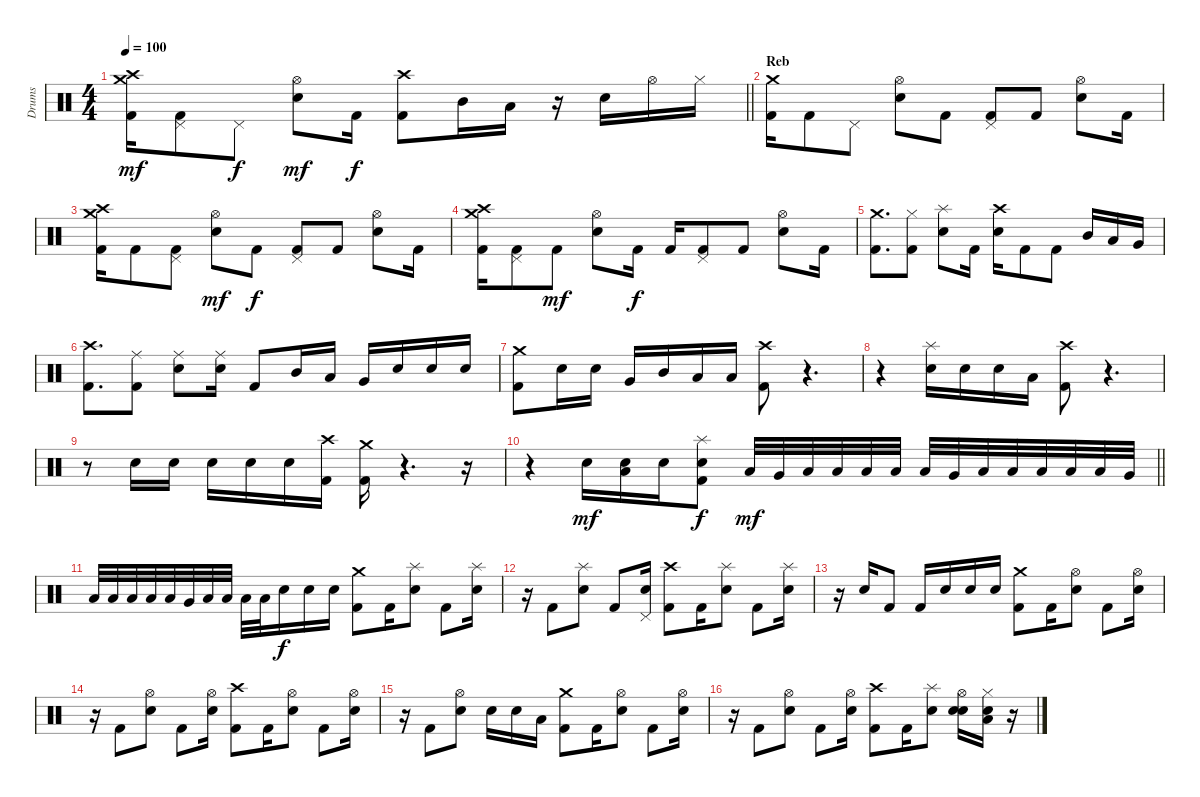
\track ("Drums" "Drums") {instrument percussion}
\staff {score}
\articulation defaults
\ts (4 4)
\tempo 100
\clef neutral
\barLineRight lightlight
\ks c
("Crash high (hit)" "Crash medium (hit)" "Kick (hit) 2").16{dy mf} ("Pedal Hi-Hat (hit)" "Kick (hit) 2").8 "Pedal Hi-Hat (hit)".8{dy f} ("Hi-Hat (open)" "Snare (hit) 2").8{dy mf} "Kick (hit) 2".16{dy f} ("Crash high (hit)" "Kick (hit) 2").8 "Mid Tom (hit)".16 "Low Tom (hit)".16 r.16 "Snare (hit) 2".16 "Hi-Hat (open)".16 "Hi-Hat (closed)".16 |
\section ("" "Reb")
("Crash medium (hit)" "Kick (hit) 2").16 "Kick (hit) 2".8 "Pedal Hi-Hat (hit)".8 ("Hi-Hat (open)" "Snare (hit) 2").8 "Kick (hit) 2".8 ("Pedal Hi-Hat (hit)" "Kick (hit) 2").8 "Kick (hit) 2".8 ("Hi-Hat (open)" "Snare (hit) 2").8 "Kick (hit) 2".16 |
("Crash high (hit)" "Crash medium (hit)" "Kick (hit) 2").16 "Kick (hit) 2".8 ("Pedal Hi-Hat (hit)" "Kick (hit) 2").8 ("Hi-Hat (open)" "Snare (hit) 2").8{dy mf} "Kick (hit) 2".8{dy f} ("Pedal Hi-Hat (hit)" "Kick (hit) 2").8 "Kick (hit) 2".8 ("Hi-Hat (open)" "Snare (hit) 2").8 "Kick (hit) 2".16 |
("Crash high (hit)" "Crash medium (hit)" "Kick (hit) 2").16 ("Pedal Hi-Hat (hit)" "Kick (hit) 2").8 "Kick (hit) 2".8{dy mf} ("Hi-Hat (open)" "Snare (hit) 2").8 "Kick (hit) 2".16{dy f} "Kick (hit) 2".16 ("Pedal Hi-Hat (hit)" "Kick (hit) 2").8 "Kick (hit) 2".8 ("Hi-Hat (open)" "Snare (hit) 2").8 "Kick (hit) 2".16 |
("Crash medium (hit)" "Kick (hit) 2").8{d} ("Hi-Hat (closed)" "Kick (hit) 2").8 ("Splash (hit)" "Snare (hit) 2").8 "Kick (hit) 2".16 ("Crash high (hit)" "Snare (hit) 2").16 "Kick (hit) 2".8 "Kick (hit) 2".8 "Mid Tom (hit)".16 "Low Tom (hit)".16 "Very Low Tom (hit)".16 |
("Crash high (hit)" "Kick (hit) 2").8{d} ("Ride (middle)" "Kick (hit) 2").8 ("Ride (middle)" "Snare (hit) 2").8 ("Ride (middle)" "Snare (hit) 2").16 "Kick (hit) 2".8 "Mid Tom (hit)".16 "Low Tom (hit)".16 "Very Low Tom (hit)".16 "Snare (hit) 2".16 "Snare (hit) 2".16 "Snare (hit) 2".16 |
("Crash medium (hit)" "Kick (hit) 2").8 "Snare (hit) 2".16 "Snare (hit) 2".16 "Very Low Tom (hit)".16 "Mid Tom (hit)".16 "Low Tom (hit)".16 "Low Tom (hit)".16 ("Crash high (hit)" "Kick (hit) 2").8 r.4{d} |
r.4 ("Splash (hit)" "Snare (hit) 2").16 "Snare (hit) 2".16 "Snare (hit) 2".16 "Low Tom (hit)".16 ("Crash high (hit)" "Kick (hit) 2").8 r.4{d} |
r.8 "Snare (hit) 2".16 "Snare (hit) 2".16 "Snare (hit) 2".16 "Snare (hit) 2".16 "Snare (hit) 2".16 ("Crash high (hit)" "Kick (hit) 2").16 ("Crash medium (hit)" "Kick (hit) 2").16 r.4{d} r.16 |
\barLineRight lightlight
r.4 "Snare (hit) 2".16{dy mf} ("Low Tom (hit)" "Snare (hit) 2").16 "Snare (hit) 2".16 ("Splash (hit)" "Snare (hit) 2" "Kick (hit) 2").8{dy f} "Low Tom (hit)".32{dy mf} "Very Low Tom (hit)".32 "Low Floor Tom (hit)".32 "Low Floor Tom (hit)".32 "Low Floor Tom (hit)".32 "Low Floor Tom (hit)".32 "Low Tom (hit)".32 "Very Low Tom (hit)".32 "Low Floor Tom (hit)".32 "Low Floor Tom (hit)".32 "Low Floor Tom (hit)".32 "Low Floor Tom (hit)".32 "Low Tom (hit)".32 "Very Low Tom (hit)".32 |
\section ("" "")
"Low Floor Tom (hit)".32 "Low Floor Tom (hit)".32 "Low Floor Tom (hit)".32 "Low Floor Tom (hit)".32 "Low Tom (hit)".32 "Very Low Tom (hit)".32 "Low Floor Tom (hit)".32 "Low Floor Tom (hit)".32 "Low Floor Tom (hit)".32 "Low Floor Tom (hit)".32 "Snare (hit) 2".16{dy f} "Snare (hit) 2".16 "Snare (hit) 2".16 ("Crash medium (hit)" "Kick (hit) 2").8 "Kick (hit) 2".16 ("Splash (hit)" "Snare (hit) 2").8 "Kick (hit) 2".8 ("Splash (hit)" "Snare (hit) 2").16 |
r.16 "Kick (hit) 2".8 ("Splash (hit)" "Snare (hit) 2").8 "Kick (hit) 2".8 ("Pedal Hi-Hat (hit)" "Snare (hit) 2").16 ("Crash high (hit)" "Kick (hit) 2").8 "Kick (hit) 2".16 ("Splash (hit)" "Snare (hit) 2").8 "Kick (hit) 2".8 ("Splash (hit)" "Snare (hit) 2").16 |
r.16 "Snare (hit) 2".16 "Kick (hit) 2".8 "Kick (hit) 2".16 "Snare (hit) 2".16 "Snare (hit) 2".16 "Snare (hit) 2".16 ("Crash medium (hit)" "Kick (hit) 2").8 "Kick (hit) 2".16 ("Hi-Hat (open)" "Snare (hit) 2").8 "Kick (hit) 2".8 ("Hi-Hat (open)" "Snare (hit) 2").16 |
r.16 "Kick (hit) 2".8 ("Hi-Hat (open)" "Snare (hit) 2").8 "Kick (hit) 2".8 ("Hi-Hat (open)" "Snare (hit) 2").16 ("Crash high (hit)" "Kick (hit) 2").8 "Kick (hit) 2".16 ("Hi-Hat (open)" "Snare (hit) 2").8 "Kick (hit) 2".8 ("Hi-Hat (open)" "Snare (hit) 2").16 |
r.16 "Kick (hit) 2".8 ("Hi-Hat (open)" "Snare (hit) 2").8 "Snare (hit) 2".16 "Snare (hit) 2".16 "Low Floor Tom (hit)".16 ("Crash medium (hit)" "Kick (hit) 2").8 "Kick (hit) 2".16 ("Hi-Hat (open)" "Snare (hit) 2").8 "Kick (hit) 2".8 ("Hi-Hat (open)" "Snare (hit) 2").16 |
r.16 "Kick (hit) 2".8 ("Hi-Hat (open)" "Snare (hit) 2").8 "Kick (hit) 2".8 ("Hi-Hat (open)" "Snare (hit) 2").16 ("Crash high (hit)" "Kick (hit) 2").8 "Kick (hit) 2".16 ("Splash (hit)" "Snare (hit) 2").8 ("Hi-Hat (open)" "Electric Snare (hit)" "Snare (hit) 2").16 ("Hi-Hat (closed)" "Low Tom (hit)" "Snare (hit) 2").16 r.16
